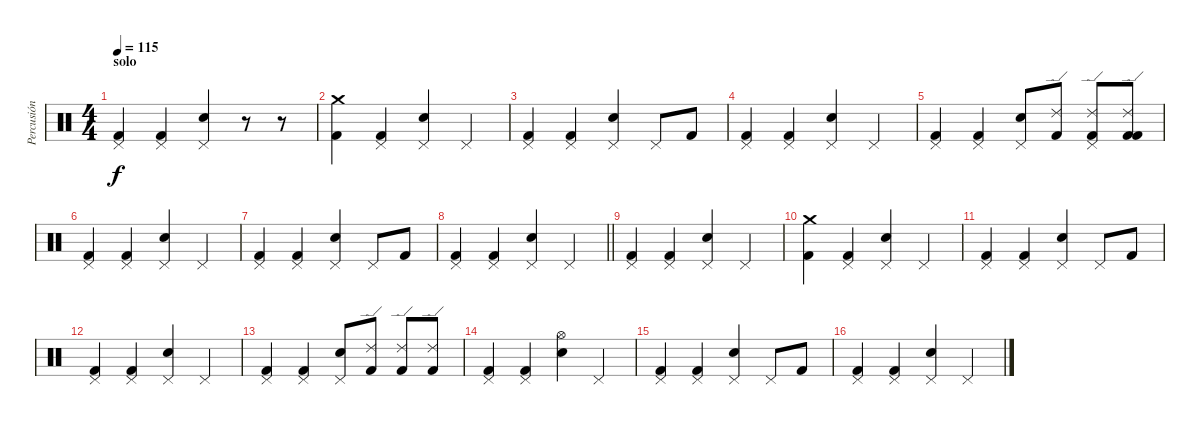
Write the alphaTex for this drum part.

\track ("Percusión" "Percusión") {instrument percussion}
\staff {score}
\articulation defaults
\ts (4 4)
\section ("" "solo")
\tempo 115
\clef neutral
\ks c
("Kick (hit) 2" "Pedal Hi-Hat (hit)").4{dy f} ("Kick (hit) 2" "Pedal Hi-Hat (hit)").4 ("Electric Snare (hit)" "Pedal Hi-Hat (hit)").4 r.8 r.8 |
("Kick (hit) 2" "Crash medium (hit)").4 ("Kick (hit) 2" "Pedal Hi-Hat (hit)").4 ("Electric Snare (hit)" "Pedal Hi-Hat (hit)").4 "Pedal Hi-Hat (hit)".4 |
("Kick (hit) 2" "Pedal Hi-Hat (hit)").4 ("Kick (hit) 2" "Pedal Hi-Hat (hit)").4 ("Electric Snare (hit)" "Pedal Hi-Hat (hit)").4 "Pedal Hi-Hat (hit)".8 "Kick (hit) 2".8 |
("Kick (hit) 2" "Pedal Hi-Hat (hit)").4 ("Kick (hit) 2" "Pedal Hi-Hat (hit)").4 ("Electric Snare (hit)" "Pedal Hi-Hat (hit)").4 "Pedal Hi-Hat (hit)".4 |
("Kick (hit) 2" "Pedal Hi-Hat (hit)").4 ("Kick (hit) 2" "Pedal Hi-Hat (hit)").4 ("Electric Snare (hit)" "Pedal Hi-Hat (hit)").8 ("Kick (hit) 2" "Ride (edge) 2").8 ("Pedal Hi-Hat (hit)" "Kick (hit) 2" "Ride (edge) 2").8 ("Kick (hit) 2" "Kick (hit) 2" "Ride (edge) 2").8 |
("Kick (hit) 2" "Pedal Hi-Hat (hit)").4 ("Kick (hit) 2" "Pedal Hi-Hat (hit)").4 ("Electric Snare (hit)" "Pedal Hi-Hat (hit)").4 "Pedal Hi-Hat (hit)".4 |
("Kick (hit) 2" "Pedal Hi-Hat (hit)").4 ("Kick (hit) 2" "Pedal Hi-Hat (hit)").4 ("Electric Snare (hit)" "Pedal Hi-Hat (hit)").4 "Pedal Hi-Hat (hit)".8 "Kick (hit) 2".8 |
\barLineRight lightlight
("Kick (hit) 2" "Pedal Hi-Hat (hit)").4 ("Kick (hit) 2" "Pedal Hi-Hat (hit)").4 ("Electric Snare (hit)" "Pedal Hi-Hat (hit)").4 "Pedal Hi-Hat (hit)".4 |
("Kick (hit) 2" "Pedal Hi-Hat (hit)").4 ("Kick (hit) 2" "Pedal Hi-Hat (hit)").4 ("Electric Snare (hit)" "Pedal Hi-Hat (hit)").4 "Pedal Hi-Hat (hit)".4 |
("Kick (hit) 2" "Crash medium (hit)").4 ("Kick (hit) 2" "Pedal Hi-Hat (hit)").4 ("Electric Snare (hit)" "Pedal Hi-Hat (hit)").4 "Pedal Hi-Hat (hit)".4 |
("Kick (hit) 2" "Pedal Hi-Hat (hit)").4 ("Kick (hit) 2" "Pedal Hi-Hat (hit)").4 ("Electric Snare (hit)" "Pedal Hi-Hat (hit)").4 "Pedal Hi-Hat (hit)".8 "Kick (hit) 2".8 |
("Kick (hit) 2" "Pedal Hi-Hat (hit)").4 ("Kick (hit) 2" "Pedal Hi-Hat (hit)").4 ("Electric Snare (hit)" "Pedal Hi-Hat (hit)").4 "Pedal Hi-Hat (hit)".4 |
("Kick (hit) 2" "Pedal Hi-Hat (hit)").4 ("Kick (hit) 2" "Pedal Hi-Hat (hit)").4 ("Electric Snare (hit)" "Pedal Hi-Hat (hit)").8 ("Ride (edge) 2" "Kick (hit) 2").8 ("Ride (edge) 2" "Kick (hit) 2").8 ("Kick (hit) 2" "Ride (edge) 2").8 |
("Kick (hit) 2" "Pedal Hi-Hat (hit)").4 ("Kick (hit) 2" "Pedal Hi-Hat (hit)").4 ("Electric Snare (hit)" "Hi-Hat (open)").4 "Pedal Hi-Hat (hit)".4 |
("Kick (hit) 2" "Pedal Hi-Hat (hit)").4 ("Kick (hit) 2" "Pedal Hi-Hat (hit)").4 ("Electric Snare (hit)" "Pedal Hi-Hat (hit)").4 "Pedal Hi-Hat (hit)".8 "Kick (hit) 2".8 |
("Kick (hit) 2" "Pedal Hi-Hat (hit)").4 ("Kick (hit) 2" "Pedal Hi-Hat (hit)").4 ("Electric Snare (hit)" "Pedal Hi-Hat (hit)").4 "Pedal Hi-Hat (hit)".4
